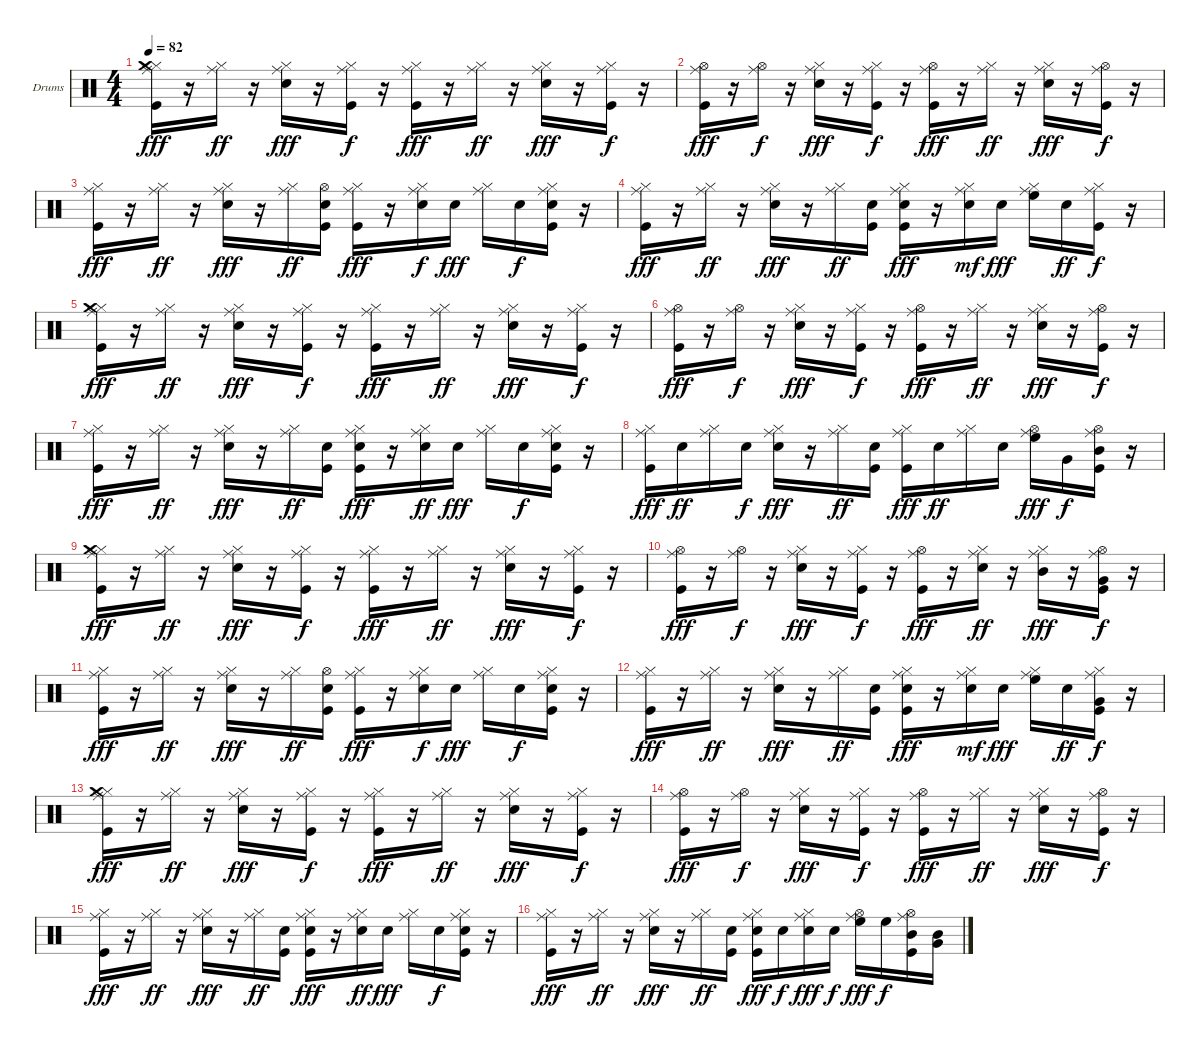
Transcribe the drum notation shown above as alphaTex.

\bracketExtendMode groupsimilarinstruments
\firstSystemTrackNameOrientation horizontal
\otherSystemsTrackNameOrientation horizontal
\track ("Drumkit" "Drums") {instrument percussion}
\staff {score}
\articulation defaults
\ts (4 4)
\tempo 82
\clef neutral
\ks c
("Kick (hit)" "Hi-Hat (closed)" "Ride (middle)" "Crash medium (hit)").16{dy fff} r.16 ("Hi-Hat (closed)" "Ride (middle)").16{dy ff} r.16 ("Snare (hit) 2" "Hi-Hat (closed)" "Ride (middle)").16{dy fff} r.16 ("Kick (hit)" "Hi-Hat (closed)" "Ride (middle)").16{dy f} r.16 ("Kick (hit)" "Hi-Hat (closed)" "Ride (middle)").16{dy fff} r.16 ("Hi-Hat (closed)" "Ride (middle)").16{dy ff} r.16 ("Snare (hit) 2" "Hi-Hat (closed)" "Ride (middle)").16{dy fff} r.16 ("Kick (hit)" "Hi-Hat (closed)" "Ride (middle)").16{dy f} r.16 |
("Kick (hit)" "Hi-Hat (open)" "Ride (middle)").16{dy fff} r.16 ("Hi-Hat (open)" "Ride (middle)").16{dy f} r.16 ("Snare (hit) 2" "Hi-Hat (closed)" "Ride (middle)").16{dy fff} r.16 ("Kick (hit)" "Hi-Hat (closed)" "Ride (middle)").16{dy f} r.16 ("Kick (hit)" "Hi-Hat (open)" "Ride (middle)").16{dy fff} r.16 ("Hi-Hat (closed)" "Ride (middle)").16{dy ff} r.16 ("Snare (hit) 2" "Hi-Hat (closed)" "Ride (middle)").16{dy fff} r.16 ("Kick (hit)" "Hi-Hat (open)" "Ride (middle)").16{dy f} r.16 |
("Kick (hit)" "Hi-Hat (closed)" "Ride (middle)").16{dy fff} r.16 ("Hi-Hat (closed)" "Ride (middle)").16{dy ff} r.16 ("Snare (hit) 2" "Hi-Hat (closed)" "Ride (middle)").16{dy fff} r.16 ("Hi-Hat (closed)" "Ride (middle)").16{dy ff} ("Kick (hit)" "Snare (hit) 2" "Hi-Hat (open)").16 ("Kick (hit)" "Hi-Hat (closed)" "Ride (middle)").16{dy fff} r.16 ("Snare (hit) 2" "Hi-Hat (closed)" "Ride (middle)").16{dy f} "Snare (hit) 2".16{dy fff} ("Hi-Hat (closed)" "Ride (middle)").16 "Snare (hit) 2".16{dy f} ("Kick (hit)" "Snare (hit) 2" "Hi-Hat (closed)" "Ride (middle)").16 r.16 |
("Kick (hit)" "Hi-Hat (closed)" "Ride (middle)").16{dy fff} r.16 ("Hi-Hat (closed)" "Ride (middle)").16{dy ff} r.16 ("Snare (hit) 2" "Hi-Hat (closed)" "Ride (middle)").16{dy fff} r.16 ("Hi-Hat (closed)" "Ride (middle)").16{dy ff} ("Kick (hit)" "Snare (hit) 2").16 ("Kick (hit)" "Snare (hit) 2" "Hi-Hat (closed)" "Ride (middle)").16{dy fff} r.16 ("Snare (hit) 2" "Hi-Hat (closed)" "Ride (middle)").16{dy mf} "Snare (hit) 2".16{dy fff} ("Hi-Hat (closed)" "Ride (middle)" "High Floor Tom (hit)").16 "Snare (hit) 2".16{dy ff} ("Kick (hit)" "Hi-Hat (closed)" "Ride (middle)").16{dy f} r.16 |
("Kick (hit)" "Hi-Hat (closed)" "Ride (middle)" "Crash medium (hit)").16{dy fff} r.16 ("Hi-Hat (closed)" "Ride (middle)").16{dy ff} r.16 ("Snare (hit) 2" "Hi-Hat (closed)" "Ride (middle)").16{dy fff} r.16 ("Kick (hit)" "Hi-Hat (closed)" "Ride (middle)").16{dy f} r.16 ("Kick (hit)" "Hi-Hat (closed)" "Ride (middle)").16{dy fff} r.16 ("Hi-Hat (closed)" "Ride (middle)").16{dy ff} r.16 ("Snare (hit) 2" "Hi-Hat (closed)" "Ride (middle)").16{dy fff} r.16 ("Kick (hit)" "Hi-Hat (closed)" "Ride (middle)").16{dy f} r.16 |
("Kick (hit)" "Hi-Hat (open)" "Ride (middle)").16{dy fff} r.16 ("Hi-Hat (open)" "Ride (middle)").16{dy f} r.16 ("Snare (hit) 2" "Hi-Hat (closed)" "Ride (middle)").16{dy fff} r.16 ("Kick (hit)" "Hi-Hat (closed)" "Ride (middle)").16{dy f} r.16 ("Kick (hit)" "Hi-Hat (open)" "Ride (middle)").16{dy fff} r.16 ("Hi-Hat (closed)" "Ride (middle)").16{dy ff} r.16 ("Snare (hit) 2" "Hi-Hat (closed)" "Ride (middle)").16{dy fff} r.16 ("Kick (hit)" "Hi-Hat (open)" "Ride (middle)").16{dy f} r.16 |
("Kick (hit)" "Hi-Hat (closed)" "Ride (middle)").16{dy fff} r.16 ("Hi-Hat (closed)" "Ride (middle)").16{dy ff} r.16 ("Snare (hit) 2" "Hi-Hat (closed)" "Ride (middle)").16{dy fff} r.16 ("Hi-Hat (closed)" "Ride (middle)").16{dy ff} ("Kick (hit)" "Snare (hit) 2").16 ("Kick (hit)" "Snare (hit) 2" "Hi-Hat (closed)" "Ride (middle)").16{dy fff} r.16 ("Snare (hit) 2" "Hi-Hat (closed)" "Ride (middle)").16{dy ff} "Snare (hit) 2".16{dy fff} ("Hi-Hat (closed)" "Ride (middle)").16 "Snare (hit) 2".16{dy f} ("Kick (hit)" "Snare (hit) 2" "Hi-Hat (closed)" "Ride (middle)").16 r.16 |
("Kick (hit)" "Hi-Hat (closed)" "Ride (middle)").16{dy fff} "Snare (hit) 2".16{dy ff} ("Hi-Hat (closed)" "Ride (middle)").16 "Snare (hit) 2".16{dy f} ("Snare (hit) 2" "Hi-Hat (closed)" "Ride (middle)").16{dy fff} r.16 ("Hi-Hat (closed)" "Ride (middle)").16{dy ff} ("Kick (hit)" "Snare (hit) 2").16 ("Kick (hit)" "Hi-Hat (closed)" "Ride (middle)").16{dy fff} "Snare (hit) 2".16{dy ff} ("Hi-Hat (closed)" "Ride (middle)").16 "Snare (hit) 2".16 ("Hi-Hat (open)" "Ride (middle)" "High Floor Tom (hit)").16{dy fff} "Very Low Tom (hit)".16{dy f} ("Kick (hit)" "Hi-Hat (open)" "Ride (middle)" "Mid Tom (hit)").16 r.16 |
("Kick (hit)" "Hi-Hat (closed)" "Ride (middle)" "Crash medium (hit)").16{dy fff} r.16 ("Hi-Hat (closed)" "Ride (middle)").16{dy ff} r.16 ("Snare (hit) 2" "Hi-Hat (closed)" "Ride (middle)").16{dy fff} r.16 ("Kick (hit)" "Hi-Hat (closed)" "Ride (middle)").16{dy f} r.16 ("Kick (hit)" "Hi-Hat (closed)" "Ride (middle)").16{dy fff} r.16 ("Hi-Hat (closed)" "Ride (middle)").16{dy ff} r.16 ("Snare (hit) 2" "Hi-Hat (closed)" "Ride (middle)").16{dy fff} r.16 ("Kick (hit)" "Hi-Hat (closed)" "Ride (middle)").16{dy f} r.16 |
("Kick (hit)" "Hi-Hat (open)" "Ride (middle)").16{dy fff} r.16 ("Hi-Hat (open)" "Ride (middle)").16{dy f} r.16 ("Snare (hit) 2" "Hi-Hat (closed)" "Ride (middle)").16{dy fff} r.16 ("Kick (hit)" "Hi-Hat (closed)" "Ride (middle)").16{dy f} r.16 ("Kick (hit)" "Hi-Hat (open)" "Ride (middle)").16{dy fff} r.16 ("Snare (hit) 2" "Hi-Hat (closed)" "Ride (middle)").16{dy ff} r.16 ("Hi-Hat (closed)" "Ride (middle)" "Mid Tom (hit)").16{dy fff} r.16 ("Kick (hit)" "Hi-Hat (open)" "Ride (middle)" "Very Low Tom (hit)").16{dy f} r.16 |
("Kick (hit)" "Hi-Hat (closed)" "Ride (middle)").16{dy fff} r.16 ("Hi-Hat (closed)" "Ride (middle)").16{dy ff} r.16 ("Snare (hit) 2" "Hi-Hat (closed)" "Ride (middle)").16{dy fff} r.16 ("Hi-Hat (closed)" "Ride (middle)").16{dy ff} ("Kick (hit)" "Snare (hit) 2" "Hi-Hat (open)").16 ("Kick (hit)" "Hi-Hat (closed)" "Ride (middle)").16{dy fff} r.16 ("Snare (hit) 2" "Hi-Hat (closed)" "Ride (middle)").16{dy f} "Snare (hit) 2".16{dy fff} ("Hi-Hat (closed)" "Ride (middle)").16 "Snare (hit) 2".16{dy f} ("Kick (hit)" "Snare (hit) 2" "Hi-Hat (closed)" "Ride (middle)").16 r.16 |
("Kick (hit)" "Hi-Hat (closed)" "Ride (middle)").16{dy fff} r.16 ("Hi-Hat (closed)" "Ride (middle)").16{dy ff} r.16 ("Snare (hit) 2" "Hi-Hat (closed)" "Ride (middle)").16{dy fff} r.16 ("Hi-Hat (closed)" "Ride (middle)").16{dy ff} ("Kick (hit)" "Snare (hit) 2").16 ("Kick (hit)" "Snare (hit) 2" "Hi-Hat (closed)" "Ride (middle)").16{dy fff} r.16 ("Snare (hit) 2" "Hi-Hat (closed)" "Ride (middle)").16{dy mf} "Snare (hit) 2".16{dy fff} ("Hi-Hat (closed)" "Ride (middle)" "High Floor Tom (hit)").16 "Snare (hit) 2".16{dy ff} ("Kick (hit)" "Hi-Hat (closed)" "Ride (middle)" "Very Low Tom (hit)").16{dy f} r.16 |
("Kick (hit)" "Hi-Hat (closed)" "Ride (middle)" "Crash medium (hit)").16{dy fff} r.16 ("Hi-Hat (closed)" "Ride (middle)").16{dy ff} r.16 ("Snare (hit) 2" "Hi-Hat (closed)" "Ride (middle)").16{dy fff} r.16 ("Kick (hit)" "Hi-Hat (closed)" "Ride (middle)").16{dy f} r.16 ("Kick (hit)" "Hi-Hat (closed)" "Ride (middle)").16{dy fff} r.16 ("Hi-Hat (closed)" "Ride (middle)").16{dy ff} r.16 ("Snare (hit) 2" "Hi-Hat (closed)" "Ride (middle)").16{dy fff} r.16 ("Kick (hit)" "Hi-Hat (closed)" "Ride (middle)").16{dy f} r.16 |
("Kick (hit)" "Hi-Hat (open)" "Ride (middle)").16{dy fff} r.16 ("Hi-Hat (open)" "Ride (middle)").16{dy f} r.16 ("Snare (hit) 2" "Hi-Hat (closed)" "Ride (middle)").16{dy fff} r.16 ("Kick (hit)" "Hi-Hat (closed)" "Ride (middle)").16{dy f} r.16 ("Kick (hit)" "Hi-Hat (open)" "Ride (middle)").16{dy fff} r.16 ("Hi-Hat (closed)" "Ride (middle)").16{dy ff} r.16 ("Snare (hit) 2" "Hi-Hat (closed)" "Ride (middle)").16{dy fff} r.16 ("Kick (hit)" "Hi-Hat (open)" "Ride (middle)").16{dy f} r.16 |
("Kick (hit)" "Hi-Hat (closed)" "Ride (middle)").16{dy fff} r.16 ("Hi-Hat (closed)" "Ride (middle)").16{dy ff} r.16 ("Snare (hit) 2" "Hi-Hat (closed)" "Ride (middle)").16{dy fff} r.16 ("Hi-Hat (closed)" "Ride (middle)").16{dy ff} ("Kick (hit)" "Snare (hit) 2").16 ("Kick (hit)" "Snare (hit) 2" "Hi-Hat (closed)" "Ride (middle)").16{dy fff} r.16 ("Snare (hit) 2" "Hi-Hat (closed)" "Ride (middle)").16{dy ff} "Snare (hit) 2".16{dy fff} ("Hi-Hat (closed)" "Ride (middle)").16 "Snare (hit) 2".16{dy f} ("Kick (hit)" "Snare (hit) 2" "Hi-Hat (closed)" "Ride (middle)").16 r.16 |
("Kick (hit)" "Hi-Hat (closed)" "Ride (middle)").16{dy fff} r.16 ("Hi-Hat (closed)" "Ride (middle)").16{dy ff} r.16 ("Snare (hit) 2" "Hi-Hat (closed)" "Ride (middle)").16{dy fff} r.16 ("Hi-Hat (closed)" "Ride (middle)").16{dy ff} ("Kick (hit)" "Snare (hit) 2").16 ("Kick (hit)" "Snare (hit) 2" "Hi-Hat (closed)" "Ride (middle)").16{dy fff} "Snare (hit) 2".16{dy f} ("Snare (hit) 2" "Hi-Hat (closed)" "Ride (middle)").16{dy fff} "Snare (hit) 2".16{dy f} ("Hi-Hat (open)" "Ride (middle)" "High Floor Tom (hit)").16{dy fff} "High Floor Tom (hit)".16{dy f} ("Kick (hit)" "Hi-Hat (open)" "Ride (middle)" "Mid Tom (hit)").16 ("Mid Tom (hit)" "Very Low Tom (hit)").16
